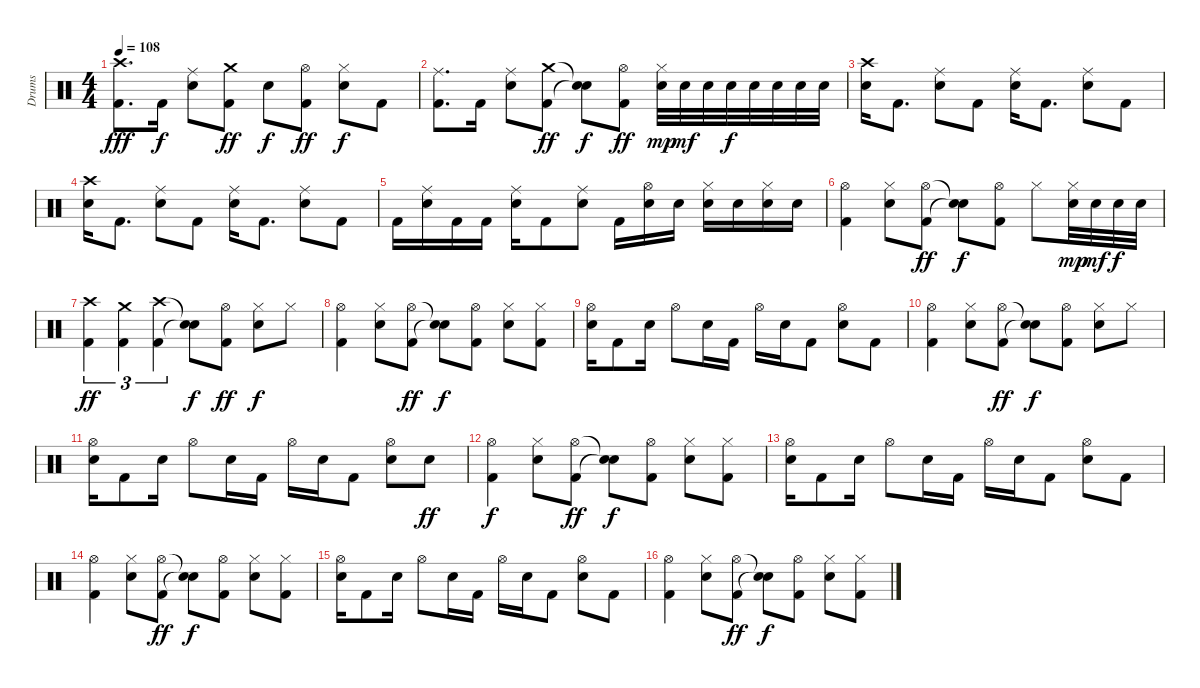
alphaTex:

\track ("Drums" "Drums") {instrument percussion}
\staff {score}
\articulation defaults
\ts (4 4)
\tempo 108
\clef neutral
\ks c
("Crash high (hit)" "Kick (hit) 2").8{d dy fff} "Kick (hit) 2".16{dy f} ("Ride (middle)" "Electric Snare (hit)").8 ("Crash medium (hit)" "Kick (hit) 2").8{dy ff} "Electric Snare (hit)".8{dy f} ("Hi-Hat (open)" "Kick (hit) 2").8{dy ff} ("Hi-Hat (closed)" "Electric Snare (hit)").8{dy f} "Kick (hit) 2".8 |
("Ride (middle)" "Kick (hit) 2").8{d} "Kick (hit) 2".16 ("Ride (middle)" "Electric Snare (hit)").8 ("Crash medium (hit)" "Kick (hit) 2").8{dy ff} ("Snare (hit)"{t} "Snare (hit)"{t}).8{dy f} ("Hi-Hat (open)" "Kick (hit) 2").8{dy ff} ("Hi-Hat (closed)" "Electric Snare (hit)").32{dy mp} "Electric Snare (hit)".32{dy mf} "Electric Snare (hit)".32 "Electric Snare (hit)".32{dy f} "Electric Snare (hit)".32 "Electric Snare (hit)".32 "Electric Snare (hit)".32 "Electric Snare (hit)".32 |
("Crash high (hit)" "Electric Snare (hit)").16 "Kick (hit) 2".8{d} ("Ride (middle)" "Electric Snare (hit)").8 "Kick (hit) 2".8 ("Ride (middle)" "Electric Snare (hit)").16 "Kick (hit) 2".8{d} ("Ride (middle)" "Electric Snare (hit)").8 "Kick (hit) 2".8 |
("Crash high (hit)" "Electric Snare (hit)").16 "Kick (hit) 2".8{d} ("Ride (middle)" "Electric Snare (hit)").8 "Kick (hit) 2".8 ("Ride (middle)" "Electric Snare (hit)").16 "Kick (hit) 2".8{d} ("Ride (middle)" "Electric Snare (hit)").8 "Kick (hit) 2".8 |
"Kick (hit) 2".16 ("Ride (middle)" "Electric Snare (hit)").16 "Kick (hit) 2".16 "Kick (hit) 2".16 ("Ride (middle)" "Electric Snare (hit)").16 "Kick (hit) 2".8 ("Ride (middle)" "Electric Snare (hit)").8 "Kick (hit) 2".16 ("Hi-Hat (open)" "Electric Snare (hit)").16 "Electric Snare (hit)".16 ("Hi-Hat (closed)" "Electric Snare (hit)").16 "Electric Snare (hit)".16 ("Hi-Hat (closed)" "Electric Snare (hit)").16 "Electric Snare (hit)".16 |
("Hi-Hat (open)" "Kick (hit) 2").4 ("Hi-Hat (closed)" "Electric Snare (hit)").8 ("Hi-Hat (open)" "Kick (hit) 2").8{dy ff} ("Snare (hit)"{t} "Snare (hit)"{t}).8{dy f} ("Hi-Hat (open)" "Kick (hit) 2").8 "Hi-Hat (closed)".8 ("Hi-Hat (closed)" "Electric Snare (hit)").32{dy mp} "Electric Snare (hit)".32{dy mf} "Electric Snare (hit)".32{dy f} "Electric Snare (hit)".32 |
("Crash high (hit)" "Kick (hit) 2").4{tu (3 2) dy ff} ("Crash medium (hit)" "Kick (hit) 2").4{tu (3 2)} ("Crash high (hit)" "Kick (hit) 2").4{tu (3 2)} ("Snare (hit)"{t} "Snare (hit)"{t}).8{dy f} ("Hi-Hat (open)" "Kick (hit) 2").8{dy ff} ("Hi-Hat (closed)" "Electric Snare (hit)").8{dy f} "Hi-Hat (closed)".8 |
("Hi-Hat (open)" "Kick (hit) 2").4 ("Hi-Hat (closed)" "Electric Snare (hit)").8 ("Hi-Hat (open)" "Kick (hit) 2").8{dy ff} ("Snare (hit)"{t} "Snare (hit)"{t}).8{dy f} ("Hi-Hat (open)" "Kick (hit) 2").8 ("Hi-Hat (closed)" "Electric Snare (hit)").8 ("Hi-Hat (closed)" "Kick (hit) 2").8 |
("Hi-Hat (open)" "Electric Snare (hit)").16 "Kick (hit) 2".8 "Electric Snare (hit)".16 "Hi-Hat (open)".8 "Electric Snare (hit)".16 "Kick (hit) 2".16 "Hi-Hat (open)".16 "Electric Snare (hit)".16 "Kick (hit) 2".8 ("Hi-Hat (open)" "Electric Snare (hit)").8 "Kick (hit) 2".8 |
("Hi-Hat (open)" "Kick (hit) 2").4 ("Hi-Hat (closed)" "Electric Snare (hit)").8 ("Hi-Hat (open)" "Kick (hit) 2").8{dy ff} ("Snare (hit)"{t} "Snare (hit)"{t}).8{dy f} ("Hi-Hat (open)" "Kick (hit) 2").8 ("Hi-Hat (closed)" "Electric Snare (hit)").8 "Hi-Hat (closed)".8 |
("Hi-Hat (open)" "Electric Snare (hit)").16 "Kick (hit) 2".8 "Electric Snare (hit)".16 "Hi-Hat (open)".8 "Electric Snare (hit)".16 "Kick (hit) 2".16 "Hi-Hat (open)".16 "Electric Snare (hit)".16 "Kick (hit) 2".8 ("Hi-Hat (open)" "Electric Snare (hit)").8 "Electric Snare (hit)".8{dy ff} |
("Hi-Hat (open)" "Kick (hit) 2").4{dy f} ("Hi-Hat (closed)" "Electric Snare (hit)").8 ("Hi-Hat (open)" "Kick (hit) 2").8{dy ff} ("Snare (hit)"{t} "Snare (hit)"{t}).8{dy f} ("Hi-Hat (open)" "Kick (hit) 2").8 ("Hi-Hat (closed)" "Electric Snare (hit)").8 ("Hi-Hat (closed)" "Kick (hit) 2").8 |
("Hi-Hat (open)" "Electric Snare (hit)").16 "Kick (hit) 2".8 "Electric Snare (hit)".16 "Hi-Hat (open)".8 "Electric Snare (hit)".16 "Kick (hit) 2".16 "Hi-Hat (open)".16 "Electric Snare (hit)".16 "Kick (hit) 2".8 ("Hi-Hat (open)" "Electric Snare (hit)").8 "Kick (hit) 2".8 |
("Hi-Hat (open)" "Kick (hit) 2").4 ("Hi-Hat (closed)" "Electric Snare (hit)").8 ("Hi-Hat (open)" "Kick (hit) 2").8{dy ff} ("Snare (hit)"{t} "Snare (hit)"{t}).8{dy f} ("Hi-Hat (open)" "Kick (hit) 2").8 ("Hi-Hat (closed)" "Electric Snare (hit)").8 ("Hi-Hat (closed)" "Kick (hit) 2").8 |
("Hi-Hat (open)" "Electric Snare (hit)").16 "Kick (hit) 2".8 "Electric Snare (hit)".16 "Hi-Hat (open)".8 "Electric Snare (hit)".16 "Kick (hit) 2".16 "Hi-Hat (open)".16 "Electric Snare (hit)".16 "Kick (hit) 2".8 ("Hi-Hat (open)" "Electric Snare (hit)").8 "Kick (hit) 2".8 |
("Hi-Hat (open)" "Kick (hit) 2").4 ("Hi-Hat (closed)" "Electric Snare (hit)").8 ("Hi-Hat (open)" "Kick (hit) 2").8{dy ff} ("Snare (hit)"{t} "Snare (hit)"{t}).8{dy f} ("Hi-Hat (open)" "Kick (hit) 2").8 ("Hi-Hat (closed)" "Electric Snare (hit)").8 ("Hi-Hat (closed)" "Kick (hit) 2").8
